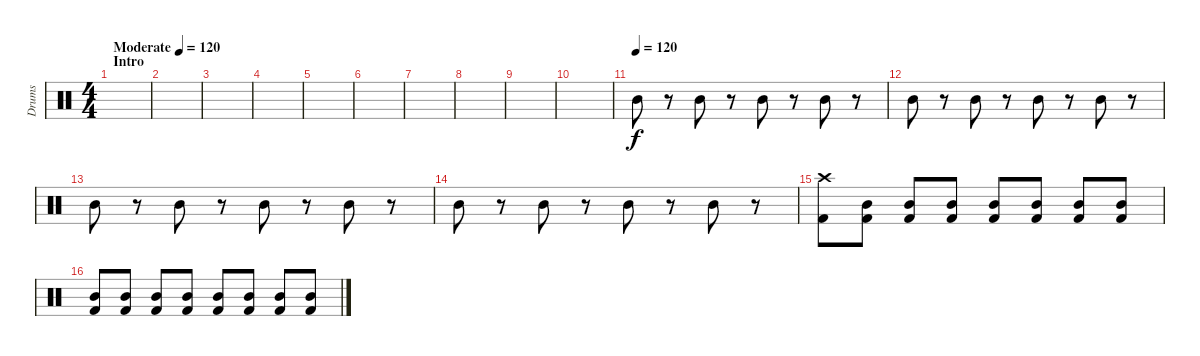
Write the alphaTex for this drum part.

\track ("Drums" "Drums") {instrument percussion}
\staff {score}
\articulation defaults
\ts (4 4)
\section ("" "Intro")
\tempo (120 "Moderate")
\tempo 114
\tempo (120 "Moderate")
\clef neutral
\ks c
|
|
|
|
|
|
|
|
|
|
\tempo (120)
"Mid Tom (hit)".8 r.8 "Mid Tom (hit)".8 r.8 "Mid Tom (hit)".8 r.8 "Mid Tom (hit)".8 r.8 |
"Mid Tom (hit)".8 r.8 "Mid Tom (hit)".8 r.8 "Mid Tom (hit)".8 r.8 "Mid Tom (hit)".8 r.8 |
"Mid Tom (hit)".8 r.8 "Mid Tom (hit)".8 r.8 "Mid Tom (hit)".8 r.8 "Mid Tom (hit)".8 r.8 |
"Mid Tom (hit)".8 r.8 "Mid Tom (hit)".8 r.8 "Mid Tom (hit)".8 r.8 "Mid Tom (hit)".8 r.8 |
("Crash high (hit)" "Kick (hit) 2").8 ("Mid Tom (hit)" "Kick (hit) 2").8{volume 3} ("Mid Tom (hit)" "Kick (hit) 2").8{volume 3} ("Mid Tom (hit)" "Kick (hit) 2").8{volume 4} ("Mid Tom (hit)" "Kick (hit) 2").8{volume 4} ("Mid Tom (hit)" "Kick (hit) 2").8{volume 5} ("Mid Tom (hit)" "Kick (hit) 2").8{volume 5} ("Mid Tom (hit)" "Kick (hit) 2").8{volume 6} |
("Mid Tom (hit)" "Kick (hit) 2").8{volume 6} ("Mid Tom (hit)" "Kick (hit) 2").8{volume 7} ("Mid Tom (hit)" "Kick (hit) 2").8{volume 7} ("Mid Tom (hit)" "Kick (hit) 2").8{volume 8} ("Mid Tom (hit)" "Kick (hit) 2").8{volume 8} ("Mid Tom (hit)" "Kick (hit) 2").8{volume 9} ("Mid Tom (hit)" "Kick (hit) 2").8{volume 9} ("Mid Tom (hit)" "Kick (hit) 2").8{volume 10}
